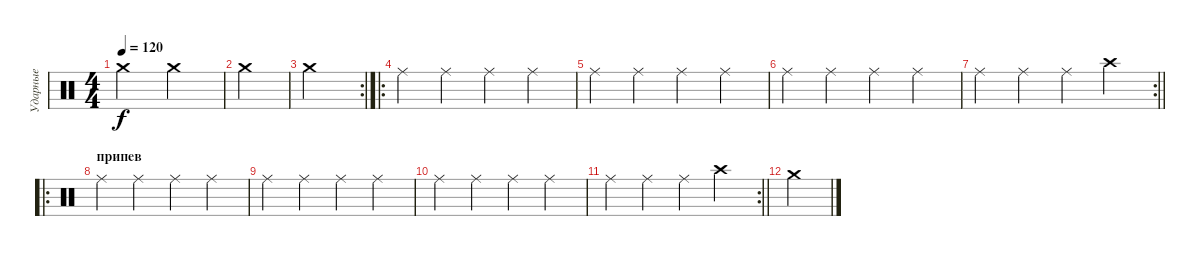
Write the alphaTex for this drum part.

\track ("Ударные" "Ударные") {instrument percussion}
\staff {score}
\articulation defaults
\ts (4 4)
\tempo 120
\clef neutral
\ks c "Crash medium (hit)".2{dy f} "Crash medium (hit)".2
|
"Crash medium (hit)".4 |
\rc 2 "Crash medium (hit)".2
|
\ro "Ride (middle)".4 "Ride (middle)".4 "Ride (middle)".4 "Ride (middle)".4
|
"Ride (middle)".4 "Ride (middle)".4 "Ride (middle)".4 "Ride (middle)".4 |
"Ride (middle)".4 "Ride (middle)".4 "Ride (middle)".4 "Ride (middle)".4 |
\rc 2
\barLineRight lightlight "Ride (middle)".4 "Ride (middle)".4 "Ride (middle)".4 "Crash high (hit)".4
|
\ro
\section ("" "припев")
"Ride (middle)".4 "Ride (middle)".4 "Ride (middle)".4 "Ride (middle)".4 |
"Ride (middle)".4 "Ride (middle)".4 "Ride (middle)".4 "Ride (middle)".4 |
"Ride (middle)".4 "Ride (middle)".4 "Ride (middle)".4 "Ride (middle)".4 |
\rc 2
\barLineRight lightlight "Ride (middle)".4 "Ride (middle)".4 "Ride (middle)".4 "Crash high (hit)".4
|
"Crash medium (hit)".4
